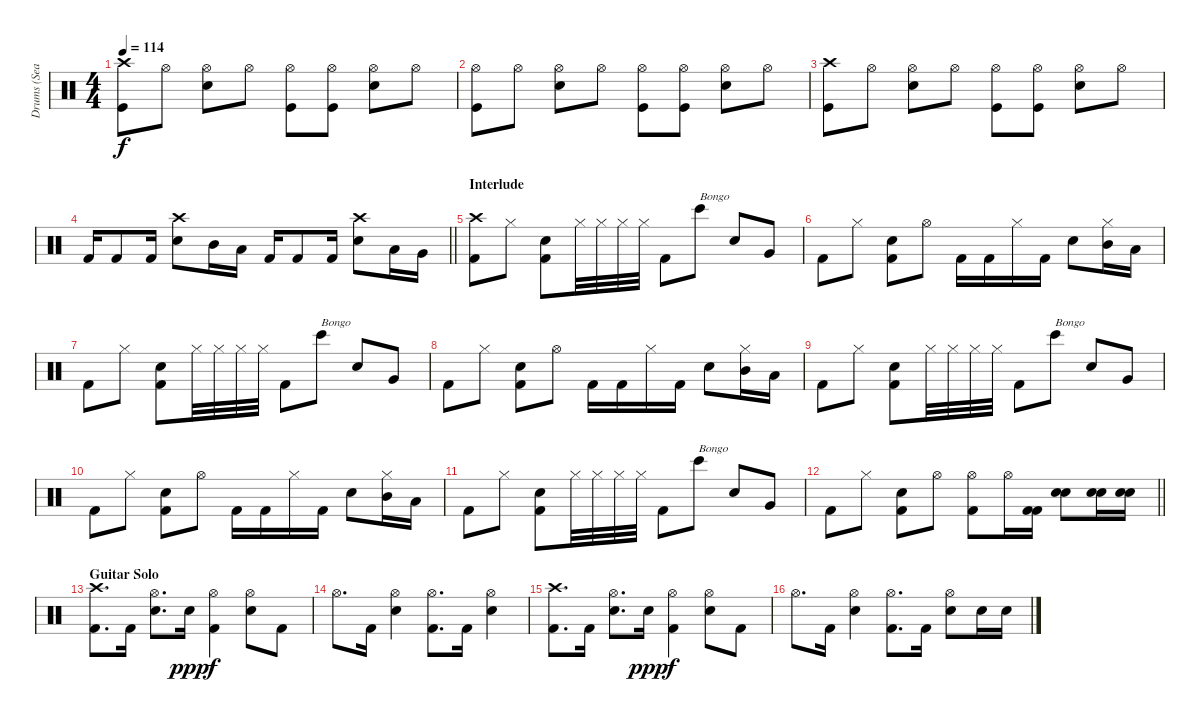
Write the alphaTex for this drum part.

\track ("Drums (Sean)" "Drums (Sea") {instrument percussion}
\staff {score}
\articulation defaults
\ts (4 4)
\tempo 114
\clef neutral
\ks c
("Kick (hit)" "Crash high (hit)").8{dy f} "Hi-Hat (open)".8 ("Snare (hit) 2" "Hi-Hat (open)").8 "Hi-Hat (open)".8 ("Kick (hit)" "Hi-Hat (open)").8 ("Kick (hit)" "Hi-Hat (open)").8 ("Snare (hit) 2" "Hi-Hat (open)").8 "Hi-Hat (open)".8 |
("Kick (hit)" "Hi-Hat (open)").8 "Hi-Hat (open)".8 ("Snare (hit) 2" "Hi-Hat (open)").8 "Hi-Hat (open)".8 ("Kick (hit)" "Hi-Hat (open)").8 ("Kick (hit)" "Hi-Hat (open)").8 ("Snare (hit) 2" "Hi-Hat (open)").8 "Hi-Hat (open)".8 |
("Kick (hit)" "Crash high (hit)").8 "Hi-Hat (open)".8 ("Snare (hit) 2" "Hi-Hat (open)").8 "Hi-Hat (open)".8 ("Kick (hit)" "Hi-Hat (open)").8 ("Kick (hit)" "Hi-Hat (open)").8 ("Snare (hit) 2" "Hi-Hat (open)").8 "Hi-Hat (open)".8 |
\barLineRight lightlight "Kick (hit) 2".16 "Kick (hit) 2".8 "Kick (hit) 2".16
("Crash high (hit)" "Snare (hit) 2").8 "Mid Tom (hit)".16 "Low Tom (hit)".16 "Kick (hit) 2".16 "Kick (hit) 2".8 "Kick (hit) 2".16 ("Crash high (hit)" "Snare (hit) 2").8 "Low Tom (hit)".16 "Very Low Tom (hit)".16 |
\section ("" "Interlude")
("Crash high (hit)" "Kick (hit) 2").8 "Hi-Hat (closed)".8 ("Snare (hit) 2" "Kick (hit) 2").8 "Hi-Hat (closed)".32 "Hi-Hat (closed)".32 "Hi-Hat (closed)".32 "Hi-Hat (closed)".32 "Kick (hit) 2".8 "Bongo High (hit)".8{txt "Bongo"} "Snare (hit) 2".8 "Very Low Tom (hit)".8 |
"Kick (hit) 2".8 "Hi-Hat (closed)".8 ("Snare (hit) 2" "Kick (hit) 2").8 "Hi-Hat (open)".8 "Kick (hit) 2".16 "Kick (hit) 2".16 "Hi-Hat (closed)".16 "Kick (hit) 2".16 "Snare (hit) 2".8 ("Hi-Hat (closed)" "Mid Tom (hit)").16 "Low Tom (hit)".16 |
"Kick (hit) 2".8 "Hi-Hat (closed)".8 ("Snare (hit) 2" "Kick (hit) 2").8 "Hi-Hat (closed)".32 "Hi-Hat (closed)".32 "Hi-Hat (closed)".32 "Hi-Hat (closed)".32 "Kick (hit) 2".8 "Bongo High (hit)".8{txt "Bongo"} "Snare (hit) 2".8 "Very Low Tom (hit)".8 |
"Kick (hit) 2".8 "Hi-Hat (closed)".8 ("Snare (hit) 2" "Kick (hit) 2").8 "Hi-Hat (open)".8 "Kick (hit) 2".16 "Kick (hit) 2".16 "Hi-Hat (closed)".16 "Kick (hit) 2".16 "Snare (hit) 2".8 ("Hi-Hat (closed)" "Mid Tom (hit)").16 "Low Tom (hit)".16 |
"Kick (hit) 2".8 "Hi-Hat (closed)".8 ("Snare (hit) 2" "Kick (hit) 2").8 "Hi-Hat (closed)".32 "Hi-Hat (closed)".32 "Hi-Hat (closed)".32 "Hi-Hat (closed)".32 "Kick (hit) 2".8 "Bongo High (hit)".8{txt "Bongo"} "Snare (hit) 2".8 "Very Low Tom (hit)".8 |
"Kick (hit) 2".8 "Hi-Hat (closed)".8 ("Snare (hit) 2" "Kick (hit) 2").8 "Hi-Hat (open)".8 "Kick (hit) 2".16 "Kick (hit) 2".16 "Hi-Hat (closed)".16 "Kick (hit) 2".16 "Snare (hit) 2".8 ("Hi-Hat (closed)" "Mid Tom (hit)").16 "Low Tom (hit)".16 |
"Kick (hit) 2".8 "Hi-Hat (closed)".8 ("Snare (hit) 2" "Kick (hit) 2").8 "Hi-Hat (closed)".32 "Hi-Hat (closed)".32 "Hi-Hat (closed)".32 "Hi-Hat (closed)".32 "Kick (hit) 2".8 "Bongo High (hit)".8{txt "Bongo"} "Snare (hit) 2".8 "Very Low Tom (hit)".8 |
\barLineRight lightlight "Kick (hit) 2".8 "Hi-Hat (closed)".8
("Snare (hit) 2" "Kick (hit) 2").8 "Hi-Hat (open)".8 ("Hi-Hat (open)" "Kick (hit) 2").8 "Hi-Hat (open)".16 ("Kick (hit) 2" "Kick (hit) 2").16 ("Snare (hit) 2" "Snare (hit) 2").8 ("Snare (hit) 2" "Snare (hit) 2").16 ("Snare (hit) 2" "Snare (hit) 2").16 |
\section ("" "Guitar Solo")
("Crash high (hit)" "Kick (hit) 2").8{d} "Kick (hit) 2".16 ("Hi-Hat (open)" "Snare (hit) 2").8{d} "Snare (hit) 2".16{dy ppp} ("Hi-Hat (open)" "Kick (hit) 2").4{dy f} ("Hi-Hat (open)" "Snare (hit) 2").8 "Kick (hit) 2".8 |
"Hi-Hat (open)".8{d} "Kick (hit) 2".16 ("Hi-Hat (open)" "Snare (hit) 2").4 ("Hi-Hat (open)" "Kick (hit) 2").8{d} "Kick (hit) 2".16 ("Hi-Hat (open)" "Snare (hit) 2").4 |
("Crash high (hit)" "Kick (hit) 2").8{d} "Kick (hit) 2".16 ("Hi-Hat (open)" "Snare (hit) 2").8{d} "Snare (hit) 2".16{dy ppp} ("Hi-Hat (open)" "Kick (hit) 2").4{dy f} ("Hi-Hat (open)" "Snare (hit) 2").8 "Kick (hit) 2".8 |
"Hi-Hat (open)".8{d} "Kick (hit) 2".16 ("Hi-Hat (open)" "Snare (hit) 2").4 ("Hi-Hat (open)" "Kick (hit) 2").8{d} "Kick (hit) 2".16 ("Hi-Hat (open)" "Snare (hit) 2").8 "Snare (hit) 2".16 "Snare (hit) 2".16
